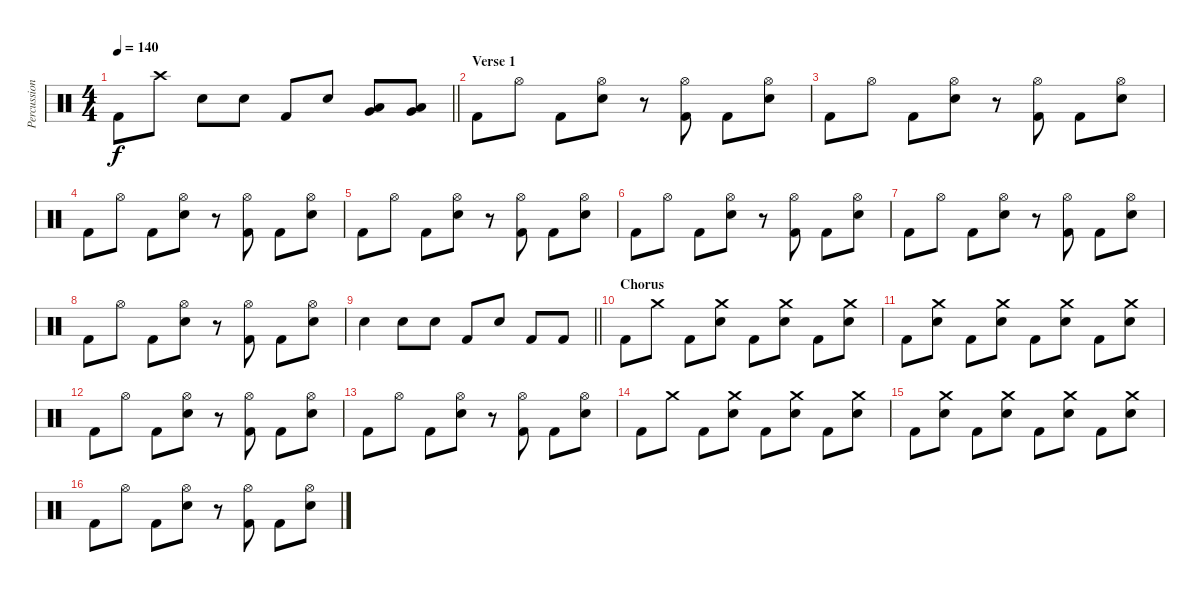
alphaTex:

\track ("Percussion" "Percussion") {instrument percussion}
\staff {score}
\articulation defaults
\ts (4 4)
\tempo 140
\clef neutral
\barLineRight lightlight
\ks c "Kick (hit) 2".8{dy f} "Crash high (hit)".8 "Electric Snare (hit)".8 "Electric Snare (hit)".8 "Kick (hit) 2".8 "Electric Snare (hit)".8
("Low Tom (hit)" "Very Low Tom (hit)").8 ("Low Tom (hit)" "Very Low Tom (hit)").8 |
\section ("" "Verse 1")
"Kick (hit) 2".8 "Hi-Hat (open)".8 "Kick (hit) 2".8 ("Hi-Hat (open)" "Electric Snare (hit)").8 r.8 ("Hi-Hat (open)" "Kick (hit) 2").8 "Kick (hit) 2".8 ("Hi-Hat (open)" "Electric Snare (hit)").8 |
"Kick (hit) 2".8 "Hi-Hat (open)".8 "Kick (hit) 2".8 ("Hi-Hat (open)" "Electric Snare (hit)").8 r.8 ("Hi-Hat (open)" "Kick (hit) 2").8 "Kick (hit) 2".8 ("Hi-Hat (open)" "Electric Snare (hit)").8 |
"Kick (hit) 2".8 "Hi-Hat (open)".8 "Kick (hit) 2".8 ("Hi-Hat (open)" "Electric Snare (hit)").8 r.8 ("Hi-Hat (open)" "Kick (hit) 2").8 "Kick (hit) 2".8 ("Hi-Hat (open)" "Electric Snare (hit)").8 |
"Kick (hit) 2".8 "Hi-Hat (open)".8 "Kick (hit) 2".8 ("Hi-Hat (open)" "Electric Snare (hit)").8 r.8 ("Hi-Hat (open)" "Kick (hit) 2").8 "Kick (hit) 2".8 ("Hi-Hat (open)" "Electric Snare (hit)").8 |
"Kick (hit) 2".8 "Hi-Hat (open)".8 "Kick (hit) 2".8 ("Hi-Hat (open)" "Electric Snare (hit)").8 r.8 ("Hi-Hat (open)" "Kick (hit) 2").8 "Kick (hit) 2".8 ("Hi-Hat (open)" "Electric Snare (hit)").8 |
"Kick (hit) 2".8 "Hi-Hat (open)".8 "Kick (hit) 2".8 ("Hi-Hat (open)" "Electric Snare (hit)").8 r.8 ("Hi-Hat (open)" "Kick (hit) 2").8 "Kick (hit) 2".8 ("Hi-Hat (open)" "Electric Snare (hit)").8 |
"Kick (hit) 2".8 "Hi-Hat (open)".8 "Kick (hit) 2".8 ("Hi-Hat (open)" "Electric Snare (hit)").8 r.8 ("Hi-Hat (open)" "Kick (hit) 2").8 "Kick (hit) 2".8 ("Hi-Hat (open)" "Electric Snare (hit)").8 |
\barLineRight lightlight "Electric Snare (hit)".4 "Electric Snare (hit)".8 "Electric Snare (hit)".8 "Kick (hit) 2".8 "Electric Snare (hit)".8 "Kick (hit) 2".8 "Kick (hit) 2".8
|
\section ("" "Chorus")
"Kick (hit) 2".8 "Crash medium (hit)".8 "Kick (hit) 2".8 ("Crash medium (hit)" "Electric Snare (hit)").8 "Kick (hit) 2".8 ("Crash medium (hit)" "Electric Snare (hit)").8 "Kick (hit) 2".8 ("Crash medium (hit)" "Electric Snare (hit)").8 |
"Kick (hit) 2".8 ("Crash medium (hit)" "Electric Snare (hit)").8 "Kick (hit) 2".8 ("Crash medium (hit)" "Electric Snare (hit)").8 "Kick (hit) 2".8 ("Crash medium (hit)" "Electric Snare (hit)").8 "Kick (hit) 2".8 ("Crash medium (hit)" "Electric Snare (hit)").8 |
"Kick (hit) 2".8 "Hi-Hat (open)".8 "Kick (hit) 2".8 ("Hi-Hat (open)" "Electric Snare (hit)").8 r.8 ("Hi-Hat (open)" "Kick (hit) 2").8 "Kick (hit) 2".8 ("Hi-Hat (open)" "Electric Snare (hit)").8 |
"Kick (hit) 2".8 "Hi-Hat (open)".8 "Kick (hit) 2".8 ("Hi-Hat (open)" "Electric Snare (hit)").8 r.8 ("Hi-Hat (open)" "Kick (hit) 2").8 "Kick (hit) 2".8 ("Hi-Hat (open)" "Electric Snare (hit)").8 |
"Kick (hit) 2".8 "Crash medium (hit)".8 "Kick (hit) 2".8 ("Crash medium (hit)" "Electric Snare (hit)").8 "Kick (hit) 2".8 ("Crash medium (hit)" "Electric Snare (hit)").8 "Kick (hit) 2".8 ("Crash medium (hit)" "Electric Snare (hit)").8 |
"Kick (hit) 2".8 ("Crash medium (hit)" "Electric Snare (hit)").8 "Kick (hit) 2".8 ("Crash medium (hit)" "Electric Snare (hit)").8 "Kick (hit) 2".8 ("Crash medium (hit)" "Electric Snare (hit)").8 "Kick (hit) 2".8 ("Crash medium (hit)" "Electric Snare (hit)").8 |
"Kick (hit) 2".8 "Hi-Hat (open)".8 "Kick (hit) 2".8 ("Hi-Hat (open)" "Electric Snare (hit)").8 r.8 ("Hi-Hat (open)" "Kick (hit) 2").8 "Kick (hit) 2".8 ("Hi-Hat (open)" "Electric Snare (hit)").8
